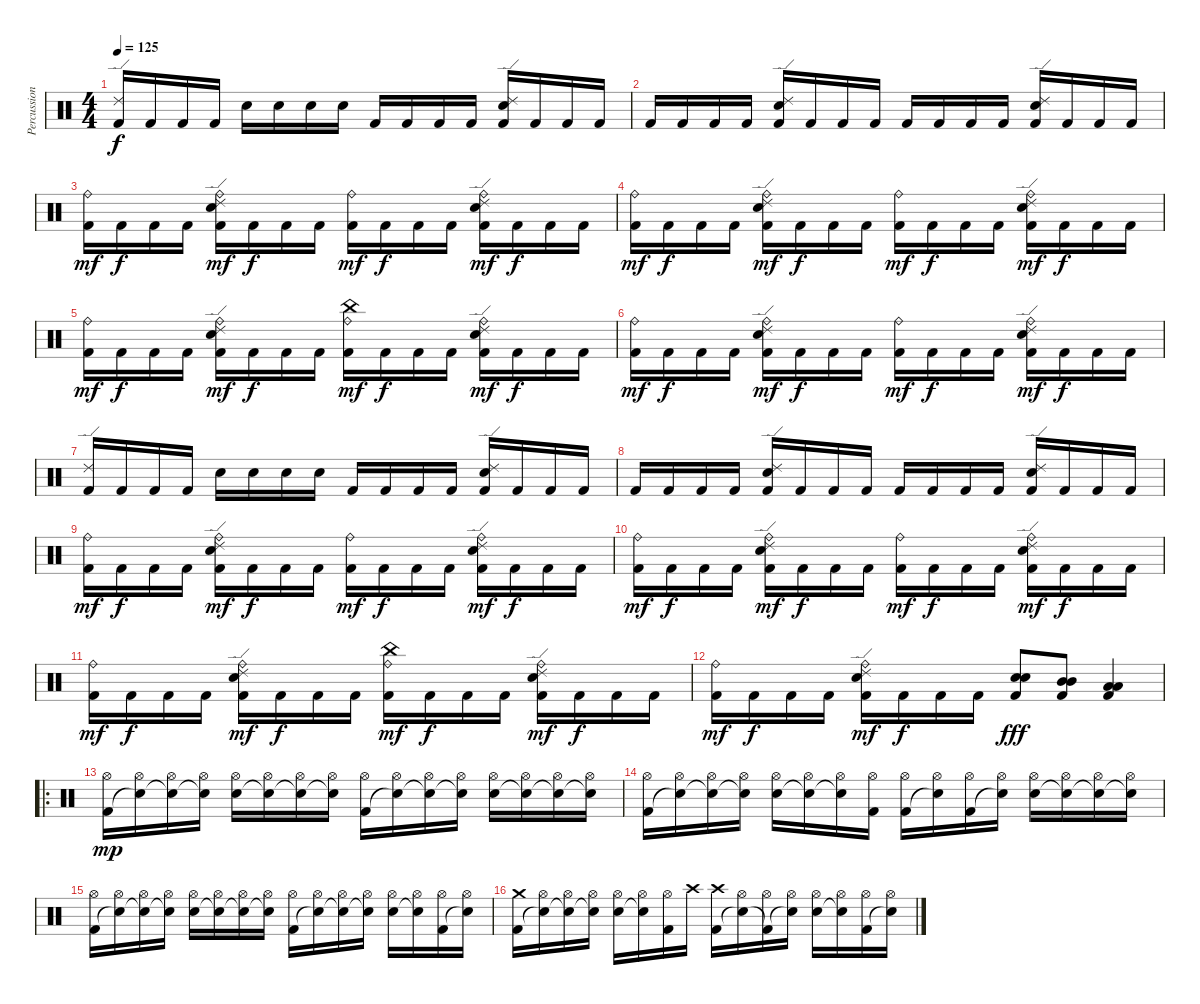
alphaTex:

\track ("Percussion" "Percussion") {instrument percussion}
\staff {score}
\articulation defaults
\ts (4 4)
\tempo 125
\clef neutral
\ks c
("Kick (hit) 2" "Ride (edge) 2").16{dy f} "Kick (hit) 2".16 "Kick (hit) 2".16 "Kick (hit) 2".16 "Electric Snare (hit)".16 "Electric Snare (hit)".16 "Electric Snare (hit)".16 "Electric Snare (hit)".16 "Kick (hit) 2".16 "Kick (hit) 2".16 "Kick (hit) 2".16 "Kick (hit) 2".16 ("Kick (hit) 2" "Electric Snare (hit)" "Ride (edge) 2").16 "Kick (hit) 2".16 "Kick (hit) 2".16 "Kick (hit) 2".16 |
"Kick (hit) 2".16 "Kick (hit) 2".16 "Kick (hit) 2".16 "Kick (hit) 2".16 ("Kick (hit) 2" "Electric Snare (hit)" "Ride (edge) 2").16 "Kick (hit) 2".16 "Kick (hit) 2".16 "Kick (hit) 2".16 "Kick (hit) 2".16 "Kick (hit) 2".16 "Kick (hit) 2".16 "Kick (hit) 2".16 ("Kick (hit) 2" "Electric Snare (hit)" "Ride (edge) 2").16 "Kick (hit) 2".16 "Kick (hit) 2".16 "Kick (hit) 2".16 |
("Kick (hit) 2" "Ride (bell)").16{dy mf} "Kick (hit) 2".16{dy f} "Kick (hit) 2".16 "Kick (hit) 2".16 ("Kick (hit) 2" "Electric Snare (hit)" "Ride (edge) 2" "Ride (bell)").16{dy mf} "Kick (hit) 2".16{dy f} "Kick (hit) 2".16 "Kick (hit) 2".16 ("Kick (hit) 2" "Ride (bell)").16{dy mf} "Kick (hit) 2".16{dy f} "Kick (hit) 2".16 "Kick (hit) 2".16 ("Kick (hit) 2" "Electric Snare (hit)" "Ride (edge) 2" "Ride (bell)").16{dy mf} "Kick (hit) 2".16{dy f} "Kick (hit) 2".16 "Kick (hit) 2".16 |
("Kick (hit) 2" "Ride (bell)").16{dy mf} "Kick (hit) 2".16{dy f} "Kick (hit) 2".16 "Kick (hit) 2".16 ("Kick (hit) 2" "Electric Snare (hit)" "Ride (edge) 2" "Ride (bell)").16{dy mf} "Kick (hit) 2".16{dy f} "Kick (hit) 2".16 "Kick (hit) 2".16 ("Kick (hit) 2" "Ride (bell)").16{dy mf} "Kick (hit) 2".16{dy f} "Kick (hit) 2".16 "Kick (hit) 2".16 ("Kick (hit) 2" "Electric Snare (hit)" "Ride (edge) 2" "Ride (bell)").16{dy mf} "Kick (hit) 2".16{dy f} "Kick (hit) 2".16 "Kick (hit) 2".16 |
("Kick (hit) 2" "Ride (bell)").16{dy mf} "Kick (hit) 2".16{dy f} "Kick (hit) 2".16 "Kick (hit) 2".16 ("Kick (hit) 2" "Electric Snare (hit)" "Ride (edge) 2" "Ride (bell)").16{dy mf} "Kick (hit) 2".16{dy f} "Kick (hit) 2".16 "Kick (hit) 2".16 ("Kick (hit) 2" "China (hit)" "Ride (bell)").16{dy mf} "Kick (hit) 2".16{dy f} "Kick (hit) 2".16 "Kick (hit) 2".16 ("Kick (hit) 2" "Electric Snare (hit)" "Ride (edge) 2" "Ride (bell)").16{dy mf} "Kick (hit) 2".16{dy f} "Kick (hit) 2".16 "Kick (hit) 2".16 |
("Kick (hit) 2" "Ride (bell)").16{dy mf} "Kick (hit) 2".16{dy f} "Kick (hit) 2".16 "Kick (hit) 2".16 ("Kick (hit) 2" "Electric Snare (hit)" "Ride (edge) 2" "Ride (bell)").16{dy mf} "Kick (hit) 2".16{dy f} "Kick (hit) 2".16 "Kick (hit) 2".16 ("Kick (hit) 2" "Ride (bell)").16{dy mf} "Kick (hit) 2".16{dy f} "Kick (hit) 2".16 "Kick (hit) 2".16 ("Kick (hit) 2" "Electric Snare (hit)" "Ride (edge) 2" "Ride (bell)").16{dy mf} "Kick (hit) 2".16{dy f} "Kick (hit) 2".16 "Kick (hit) 2".16 |
("Kick (hit) 2" "Ride (edge) 2").16 "Kick (hit) 2".16 "Kick (hit) 2".16 "Kick (hit) 2".16 "Electric Snare (hit)".16 "Electric Snare (hit)".16 "Electric Snare (hit)".16 "Electric Snare (hit)".16 "Kick (hit) 2".16 "Kick (hit) 2".16 "Kick (hit) 2".16 "Kick (hit) 2".16 ("Kick (hit) 2" "Electric Snare (hit)" "Ride (edge) 2").16 "Kick (hit) 2".16 "Kick (hit) 2".16 "Kick (hit) 2".16 |
"Kick (hit) 2".16 "Kick (hit) 2".16 "Kick (hit) 2".16 "Kick (hit) 2".16 ("Kick (hit) 2" "Electric Snare (hit)" "Ride (edge) 2").16 "Kick (hit) 2".16 "Kick (hit) 2".16 "Kick (hit) 2".16 "Kick (hit) 2".16 "Kick (hit) 2".16 "Kick (hit) 2".16 "Kick (hit) 2".16 ("Kick (hit) 2" "Electric Snare (hit)" "Ride (edge) 2").16 "Kick (hit) 2".16 "Kick (hit) 2".16 "Kick (hit) 2".16 |
("Kick (hit) 2" "Ride (bell)").16{dy mf} "Kick (hit) 2".16{dy f} "Kick (hit) 2".16 "Kick (hit) 2".16 ("Kick (hit) 2" "Electric Snare (hit)" "Ride (edge) 2" "Ride (bell)").16{dy mf} "Kick (hit) 2".16{dy f} "Kick (hit) 2".16 "Kick (hit) 2".16 ("Kick (hit) 2" "Ride (bell)").16{dy mf} "Kick (hit) 2".16{dy f} "Kick (hit) 2".16 "Kick (hit) 2".16 ("Kick (hit) 2" "Electric Snare (hit)" "Ride (edge) 2" "Ride (bell)").16{dy mf} "Kick (hit) 2".16{dy f} "Kick (hit) 2".16 "Kick (hit) 2".16 |
("Kick (hit) 2" "Ride (bell)").16{dy mf} "Kick (hit) 2".16{dy f} "Kick (hit) 2".16 "Kick (hit) 2".16 ("Kick (hit) 2" "Electric Snare (hit)" "Ride (edge) 2" "Ride (bell)").16{dy mf} "Kick (hit) 2".16{dy f} "Kick (hit) 2".16 "Kick (hit) 2".16 ("Kick (hit) 2" "Ride (bell)").16{dy mf} "Kick (hit) 2".16{dy f} "Kick (hit) 2".16 "Kick (hit) 2".16 ("Kick (hit) 2" "Electric Snare (hit)" "Ride (edge) 2" "Ride (bell)").16{dy mf} "Kick (hit) 2".16{dy f} "Kick (hit) 2".16 "Kick (hit) 2".16 |
("Kick (hit) 2" "Ride (bell)").16{dy mf} "Kick (hit) 2".16{dy f} "Kick (hit) 2".16 "Kick (hit) 2".16 ("Kick (hit) 2" "Electric Snare (hit)" "Ride (edge) 2" "Ride (bell)").16{dy mf} "Kick (hit) 2".16{dy f} "Kick (hit) 2".16 "Kick (hit) 2".16 ("Kick (hit) 2" "China (hit)" "Ride (bell)").16{dy mf} "Kick (hit) 2".16{dy f} "Kick (hit) 2".16 "Kick (hit) 2".16 ("Kick (hit) 2" "Electric Snare (hit)" "Ride (edge) 2" "Ride (bell)").16{dy mf} "Kick (hit) 2".16{dy f} "Kick (hit) 2".16 "Kick (hit) 2".16 |
("Kick (hit) 2" "Ride (bell)").16{dy mf} "Kick (hit) 2".16{dy f} "Kick (hit) 2".16 "Kick (hit) 2".16 ("Kick (hit) 2" "Electric Snare (hit)" "Ride (edge) 2" "Ride (bell)").16{dy mf} "Kick (hit) 2".16{dy f} "Kick (hit) 2".16 "Kick (hit) 2".16 ("Kick (hit) 2" "Electric Snare (hit)" "Electric Snare (hit)").8{dy fff} ("Kick (hit) 2" "Mid Tom (hit)" "Mid Tom (hit)").8 ("Kick (hit) 2" "Low Tom (hit)" "Low Tom (hit)").4 |
\ro
("Kick (hit) 2" "Hi-Hat (open)").16{dy mp} ("Snare (hit)"{t} "Hi-Hat (open)").16 ("Snare (hit)"{t} "Hi-Hat (open)").16 ("Snare (hit)"{t} "Hi-Hat (open)").16 ("Electric Snare (hit)" "Hi-Hat (open)").16 ("Snare (hit)"{t} "Hi-Hat (open)").16 ("Snare (hit)"{t} "Hi-Hat (open)").16 ("Snare (hit)"{t} "Hi-Hat (open)").16 ("Kick (hit) 2" "Hi-Hat (open)").16 ("Snare (hit)"{t} "Hi-Hat (open)").16 ("Snare (hit)"{t} "Hi-Hat (open)").16 ("Snare (hit)"{t} "Hi-Hat (open)").16 ("Electric Snare (hit)" "Hi-Hat (open)").16 ("Snare (hit)"{t} "Hi-Hat (open)").16 ("Snare (hit)"{t} "Hi-Hat (open)").16 ("Snare (hit)"{t} "Hi-Hat (open)").16 |
("Kick (hit) 2" "Hi-Hat (open)").16 ("Snare (hit)"{t} "Hi-Hat (open)").16 ("Snare (hit)"{t} "Hi-Hat (open)").16 ("Snare (hit)"{t} "Hi-Hat (open)").16 ("Electric Snare (hit)" "Hi-Hat (open)").16 ("Snare (hit)"{t} "Hi-Hat (open)").16 ("Snare (hit)"{t} "Hi-Hat (open)").16 ("Kick (hit) 2" "Hi-Hat (open)").16 ("Kick (hit) 2" "Hi-Hat (open)").16 ("Snare (hit)"{t} "Hi-Hat (open)").16 ("Kick (hit) 2" "Hi-Hat (open)").16 ("Snare (hit)"{t} "Hi-Hat (open)").16 ("Electric Snare (hit)" "Hi-Hat (open)").16 ("Snare (hit)"{t} "Hi-Hat (open)").16 ("Snare (hit)"{t} "Hi-Hat (open)").16 ("Snare (hit)"{t} "Hi-Hat (open)").16 |
("Kick (hit) 2" "Hi-Hat (open)").16 ("Snare (hit)"{t} "Hi-Hat (open)").16 ("Snare (hit)"{t} "Hi-Hat (open)").16 ("Snare (hit)"{t} "Hi-Hat (open)").16 ("Electric Snare (hit)" "Hi-Hat (open)").16 ("Snare (hit)"{t} "Hi-Hat (open)").16 ("Snare (hit)"{t} "Hi-Hat (open)").16 ("Snare (hit)"{t} "Hi-Hat (open)").16 ("Kick (hit) 2" "Hi-Hat (open)").16 ("Snare (hit)"{t} "Hi-Hat (open)").16 ("Snare (hit)"{t} "Hi-Hat (open)").16 ("Snare (hit)"{t} "Hi-Hat (open)").16 ("Electric Snare (hit)" "Hi-Hat (open)").16 ("Snare (hit)"{t} "Hi-Hat (open)").16 ("Kick (hit) 2" "Hi-Hat (open)").16 ("Snare (hit)"{t} "Hi-Hat (open)").16 |
("Kick (hit) 2" "Crash medium (hit)").16 ("Snare (hit)"{t} "Hi-Hat (open)").16 ("Snare (hit)"{t} "Hi-Hat (open)").16 ("Snare (hit)"{t} "Hi-Hat (open)").16 ("Electric Snare (hit)" "Hi-Hat (open)").16 ("Snare (hit)"{t} "Hi-Hat (open)").16 ("Kick (hit) 2" "Hi-Hat (open)").16 "Crash high (hit)".16 ("Kick (hit) 2" "Crash high (hit)").16 ("Snare (hit)"{t} "Hi-Hat (open)").16 ("Kick (hit) 2"{t} "Hi-Hat (open)").16 ("Snare (hit)"{t} "Hi-Hat (open)").16 ("Electric Snare (hit)" "Hi-Hat (open)").16 ("Snare (hit)"{t} "Hi-Hat (open)").16 ("Kick (hit) 2" "Hi-Hat (open)").16 ("Snare (hit)"{t} "Hi-Hat (open)").16
